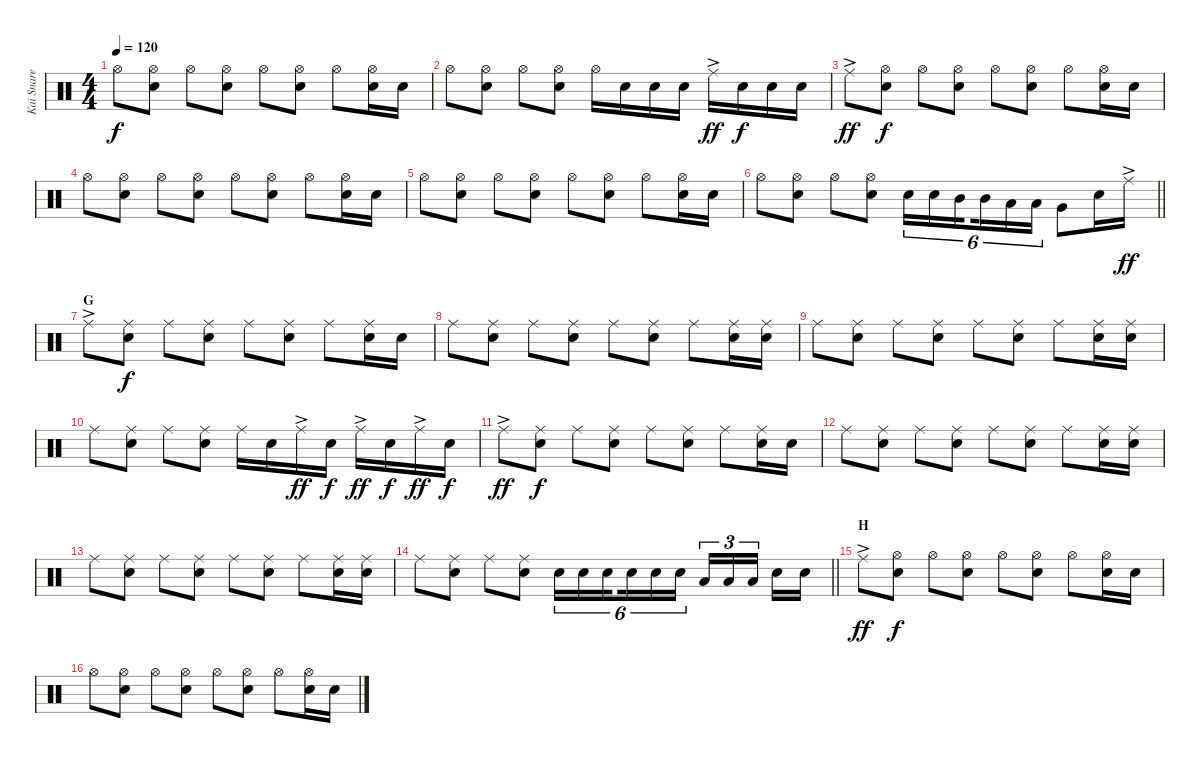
\track ("Kai Snare" "Kai Snare") {instrument percussion}
\staff {score}
\articulation defaults
\ts (4 4)
\tempo 120
\clef neutral
\ks c "Hi-Hat (open)".8{dy f}
("Hi-Hat (open)" "Snare (hit) 2").8 "Hi-Hat (open)".8 ("Hi-Hat (open)" "Snare (hit) 2").8 "Hi-Hat (open)".8 ("Hi-Hat (open)" "Snare (hit) 2").8 "Hi-Hat (open)".8 ("Hi-Hat (open)" "Snare (hit) 2").16 "Snare (hit) 2".16 |
"Hi-Hat (open)".8 ("Hi-Hat (open)" "Snare (hit) 2").8 "Hi-Hat (open)".8 ("Hi-Hat (open)" "Snare (hit) 2").8 "Hi-Hat (open)".16 "Snare (hit) 2".16 "Snare (hit) 2".16 "Snare (hit) 2".16 "Ride (middle)"{ac}.16{dy ff} "Snare (hit) 2".16{dy f} "Snare (hit) 2".16 "Snare (hit) 2".16 |
"Ride (middle)"{ac}.8{dy ff} ("Hi-Hat (open)" "Snare (hit) 2").8{dy f} "Hi-Hat (open)".8 ("Hi-Hat (open)" "Snare (hit) 2").8 "Hi-Hat (open)".8 ("Hi-Hat (open)" "Snare (hit) 2").8 "Hi-Hat (open)".8 ("Hi-Hat (open)" "Snare (hit) 2").16 "Snare (hit) 2".16 |
"Hi-Hat (open)".8 ("Hi-Hat (open)" "Snare (hit) 2").8 "Hi-Hat (open)".8 ("Hi-Hat (open)" "Snare (hit) 2").8 "Hi-Hat (open)".8 ("Hi-Hat (open)" "Snare (hit) 2").8 "Hi-Hat (open)".8 ("Hi-Hat (open)" "Snare (hit) 2").16 "Snare (hit) 2".16 |
"Hi-Hat (open)".8 ("Hi-Hat (open)" "Snare (hit) 2").8 "Hi-Hat (open)".8 ("Hi-Hat (open)" "Snare (hit) 2").8 "Hi-Hat (open)".8 ("Hi-Hat (open)" "Snare (hit) 2").8 "Hi-Hat (open)".8 ("Hi-Hat (open)" "Snare (hit) 2").16 "Snare (hit) 2".16 |
\barLineRight lightlight "Hi-Hat (open)".8
("Hi-Hat (open)" "Snare (hit) 2").8 "Hi-Hat (open)".8 ("Hi-Hat (open)" "Snare (hit) 2").8 "Snare (hit) 2".16{tu (6 4)} "Snare (hit) 2".16{tu (6 4)} "Mid Tom (hit)".16{tu (6 4) beam splitsecondary} "Mid Tom (hit)".16{tu (6 4)} "Low Tom (hit)".16{tu (6 4)} "Low Tom (hit)".16{tu (6 4)} "Very Low Tom (hit)".8 "Snare (hit) 2".16 "Ride (middle)"{ac}.16{dy ff} |
\section ("" "G")
"Ride (middle)"{ac}.8 ("Ride (middle)" "Snare (hit) 2").8{dy f} "Ride (middle)".8 ("Ride (middle)" "Snare (hit) 2").8 "Ride (middle)".8 ("Ride (middle)" "Snare (hit) 2").8 "Ride (middle)".8 ("Ride (middle)" "Snare (hit) 2").16 "Snare (hit) 2".16 |
"Ride (middle)".8 ("Ride (middle)" "Snare (hit) 2").8 "Ride (middle)".8 ("Ride (middle)" "Snare (hit) 2").8 "Ride (middle)".8 ("Ride (middle)" "Snare (hit) 2").8 "Ride (middle)".8 ("Ride (middle)" "Snare (hit) 2").16 ("Ride (middle)" "Snare (hit) 2").16 |
"Ride (middle)".8 ("Ride (middle)" "Snare (hit) 2").8 "Ride (middle)".8 ("Ride (middle)" "Snare (hit) 2").8 "Ride (middle)".8 ("Ride (middle)" "Snare (hit) 2").8 "Ride (middle)".8 ("Ride (middle)" "Snare (hit) 2").16 ("Ride (middle)" "Snare (hit) 2").16 |
"Ride (middle)".8 ("Ride (middle)" "Snare (hit) 2").8 "Ride (middle)".8 ("Ride (middle)" "Snare (hit) 2").8 "Ride (middle)".16 "Snare (hit) 2".16 "Ride (middle)"{ac}.16{dy ff} "Snare (hit) 2".16{dy f} "Ride (middle)"{ac}.16{dy ff} "Snare (hit) 2".16{dy f} "Ride (middle)"{ac}.16{dy ff} "Snare (hit) 2".16{dy f} |
"Ride (middle)"{ac}.8{dy ff} ("Ride (middle)" "Snare (hit) 2").8{dy f} "Ride (middle)".8 ("Ride (middle)" "Snare (hit) 2").8 "Ride (middle)".8 ("Ride (middle)" "Snare (hit) 2").8 "Ride (middle)".8 ("Ride (middle)" "Snare (hit) 2").16 "Snare (hit) 2".16 |
"Ride (middle)".8 ("Ride (middle)" "Snare (hit) 2").8 "Ride (middle)".8 ("Ride (middle)" "Snare (hit) 2").8 "Ride (middle)".8 ("Ride (middle)" "Snare (hit) 2").8 "Ride (middle)".8 ("Ride (middle)" "Snare (hit) 2").16 ("Ride (middle)" "Snare (hit) 2").16 |
"Ride (middle)".8 ("Ride (middle)" "Snare (hit) 2").8 "Ride (middle)".8 ("Ride (middle)" "Snare (hit) 2").8 "Ride (middle)".8 ("Ride (middle)" "Snare (hit) 2").8 "Ride (middle)".8 ("Ride (middle)" "Snare (hit) 2").16 ("Ride (middle)" "Snare (hit) 2").16 |
\barLineRight lightlight "Ride (middle)".8
("Ride (middle)" "Snare (hit) 2").8 "Ride (middle)".8 ("Ride (middle)" "Snare (hit) 2").8 "Snare (hit) 2".16{tu (6 4)} "Snare (hit) 2".16{tu (6 4)} "Snare (hit) 2".16{tu (6 4) beam splitsecondary} "Snare (hit) 2".16{tu (6 4)} "Snare (hit) 2".16{tu (6 4)} "Snare (hit) 2".16{tu (6 4)} "Low Tom (hit)".16{tu (3 2)} "Low Tom (hit)".16{tu (3 2)} "Low Tom (hit)".16{tu (3 2) beam splitsecondary} "Snare (hit) 2".16 "Snare (hit) 2".16 |
\section ("" "H")
"Ride (middle)"{ac}.8{dy ff} ("Hi-Hat (open)" "Snare (hit) 2").8{dy f} "Hi-Hat (open)".8 ("Hi-Hat (open)" "Snare (hit) 2").8 "Hi-Hat (open)".8 ("Hi-Hat (open)" "Snare (hit) 2").8 "Hi-Hat (open)".8 ("Hi-Hat (open)" "Snare (hit) 2").16 "Snare (hit) 2".16 |
"Hi-Hat (open)".8 ("Hi-Hat (open)" "Snare (hit) 2").8 "Hi-Hat (open)".8 ("Hi-Hat (open)" "Snare (hit) 2").8 "Hi-Hat (open)".8 ("Hi-Hat (open)" "Snare (hit) 2").8 "Hi-Hat (open)".8 ("Hi-Hat (open)" "Snare (hit) 2").16 "Snare (hit) 2".16
